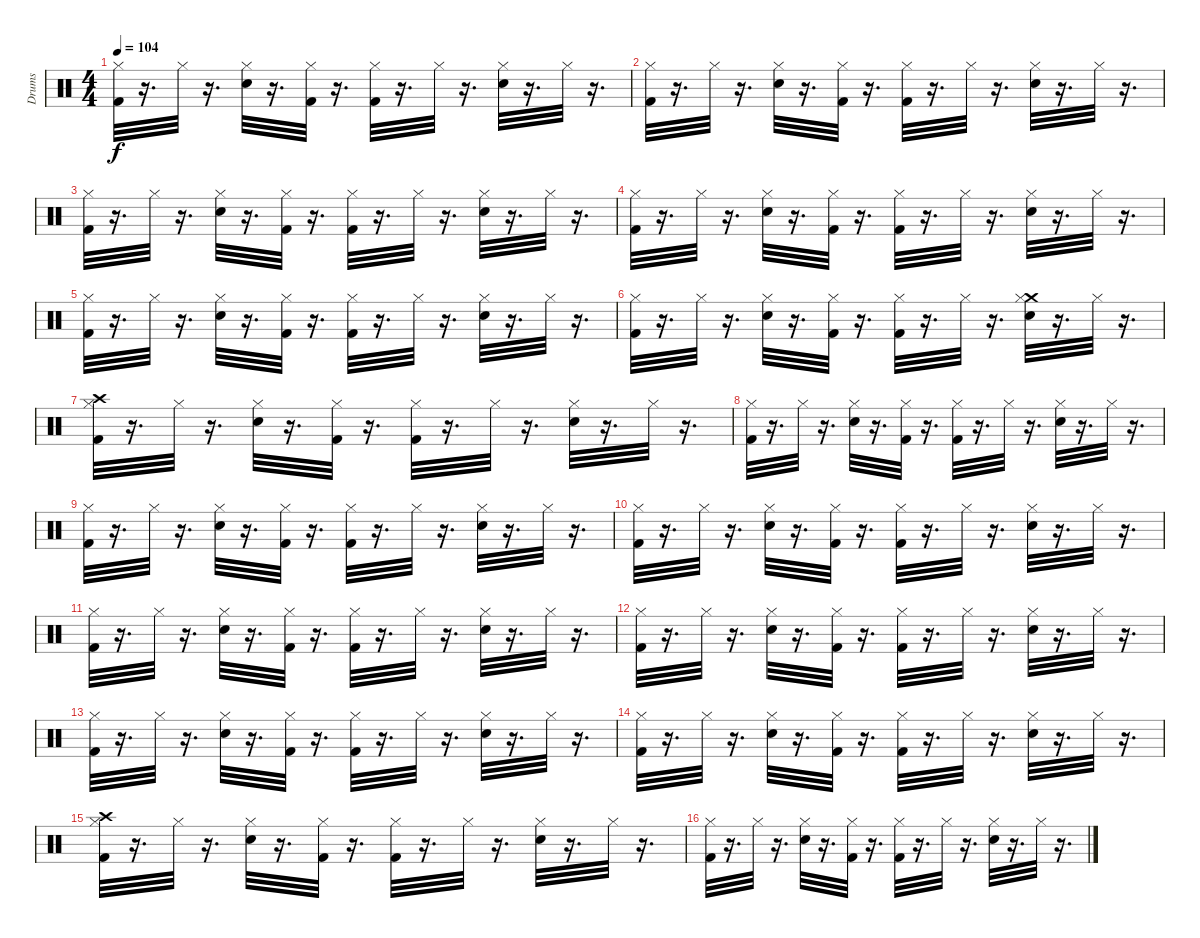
\track ("Drums" "Drums") {instrument percussion}
\staff {score}
\articulation defaults
\ts (4 4)
\tempo 104
\clef neutral
\ks c
("Hi-Hat (closed)" "Kick (hit) 2").32{dy f} r.16{d} "Hi-Hat (closed)".32 r.16{d} ("Hi-Hat (closed)" "Snare (hit) 2").32 r.16{d} ("Kick (hit) 2" "Hi-Hat (closed)").32 r.16{d} ("Hi-Hat (closed)" "Kick (hit) 2").32 r.16{d} "Hi-Hat (closed)".32 r.16{d} ("Hi-Hat (closed)" "Snare (hit) 2").32 r.16{d} "Hi-Hat (closed)".32 r.16{d} |
("Hi-Hat (closed)" "Kick (hit) 2").32 r.16{d} "Hi-Hat (closed)".32 r.16{d} ("Hi-Hat (closed)" "Snare (hit) 2").32 r.16{d} ("Kick (hit) 2" "Hi-Hat (closed)").32 r.16{d} ("Hi-Hat (closed)" "Kick (hit) 2").32 r.16{d} "Hi-Hat (closed)".32 r.16{d} ("Hi-Hat (closed)" "Snare (hit) 2").32 r.16{d} "Hi-Hat (closed)".32 r.16{d} |
("Hi-Hat (closed)" "Kick (hit) 2").32 r.16{d} "Hi-Hat (closed)".32 r.16{d} ("Hi-Hat (closed)" "Snare (hit) 2").32 r.16{d} ("Kick (hit) 2" "Hi-Hat (closed)").32 r.16{d} ("Hi-Hat (closed)" "Kick (hit) 2").32 r.16{d} "Hi-Hat (closed)".32 r.16{d} ("Hi-Hat (closed)" "Snare (hit) 2").32 r.16{d} "Hi-Hat (closed)".32 r.16{d} |
("Hi-Hat (closed)" "Kick (hit) 2").32 r.16{d} "Hi-Hat (closed)".32 r.16{d} ("Hi-Hat (closed)" "Snare (hit) 2").32 r.16{d} ("Kick (hit) 2" "Hi-Hat (closed)").32 r.16{d} ("Hi-Hat (closed)" "Kick (hit) 2").32 r.16{d} "Hi-Hat (closed)".32 r.16{d} ("Hi-Hat (closed)" "Snare (hit) 2").32 r.16{d} "Hi-Hat (closed)".32 r.16{d} |
("Hi-Hat (closed)" "Kick (hit) 2").32 r.16{d} "Hi-Hat (closed)".32 r.16{d} ("Hi-Hat (closed)" "Snare (hit) 2").32 r.16{d} ("Kick (hit) 2" "Hi-Hat (closed)").32 r.16{d} ("Hi-Hat (closed)" "Kick (hit) 2").32 r.16{d} "Hi-Hat (closed)".32 r.16{d} ("Hi-Hat (closed)" "Snare (hit) 2").32 r.16{d} "Hi-Hat (closed)".32 r.16{d} |
("Hi-Hat (closed)" "Kick (hit) 2").32 r.16{d} "Hi-Hat (closed)".32 r.16{d} ("Hi-Hat (closed)" "Snare (hit) 2").32 r.16{d} ("Kick (hit) 2" "Hi-Hat (closed)").32 r.16{d} ("Hi-Hat (closed)" "Kick (hit) 2").32 r.16{d} "Hi-Hat (closed)".32 r.16{d} ("Crash medium (hit)" "Hi-Hat (closed)" "Snare (hit) 2").32 r.16{d} "Hi-Hat (closed)".32 r.16{d} |
("Crash high (hit)" "Hi-Hat (closed)" "Kick (hit) 2").32 r.16{d} "Hi-Hat (closed)".32 r.16{d} ("Hi-Hat (closed)" "Snare (hit) 2").32 r.16{d} ("Kick (hit) 2" "Hi-Hat (closed)").32 r.16{d} ("Hi-Hat (closed)" "Kick (hit) 2").32 r.16{d} "Hi-Hat (closed)".32 r.16{d} ("Hi-Hat (closed)" "Snare (hit) 2").32 r.16{d} "Hi-Hat (closed)".32 r.16{d} |
("Hi-Hat (closed)" "Kick (hit) 2").32 r.16{d} "Hi-Hat (closed)".32 r.16{d} ("Hi-Hat (closed)" "Snare (hit) 2").32 r.16{d} ("Kick (hit) 2" "Hi-Hat (closed)").32 r.16{d} ("Hi-Hat (closed)" "Kick (hit) 2").32 r.16{d} "Hi-Hat (closed)".32 r.16{d} ("Hi-Hat (closed)" "Snare (hit) 2").32 r.16{d} "Hi-Hat (closed)".32 r.16{d} |
("Hi-Hat (closed)" "Kick (hit) 2").32 r.16{d} "Hi-Hat (closed)".32 r.16{d} ("Hi-Hat (closed)" "Snare (hit) 2").32 r.16{d} ("Kick (hit) 2" "Hi-Hat (closed)").32 r.16{d} ("Hi-Hat (closed)" "Kick (hit) 2").32 r.16{d} "Hi-Hat (closed)".32 r.16{d} ("Hi-Hat (closed)" "Snare (hit) 2").32 r.16{d} "Hi-Hat (closed)".32 r.16{d} |
("Hi-Hat (closed)" "Kick (hit) 2").32 r.16{d} "Hi-Hat (closed)".32 r.16{d} ("Hi-Hat (closed)" "Snare (hit) 2").32 r.16{d} ("Kick (hit) 2" "Hi-Hat (closed)").32 r.16{d} ("Hi-Hat (closed)" "Kick (hit) 2").32 r.16{d} "Hi-Hat (closed)".32 r.16{d} ("Hi-Hat (closed)" "Snare (hit) 2").32 r.16{d} "Hi-Hat (closed)".32 r.16{d} |
("Hi-Hat (closed)" "Kick (hit) 2").32 r.16{d} "Hi-Hat (closed)".32 r.16{d} ("Hi-Hat (closed)" "Snare (hit) 2").32 r.16{d} ("Kick (hit) 2" "Hi-Hat (closed)").32 r.16{d} ("Hi-Hat (closed)" "Kick (hit) 2").32 r.16{d} "Hi-Hat (closed)".32 r.16{d} ("Hi-Hat (closed)" "Snare (hit) 2").32 r.16{d} "Hi-Hat (closed)".32 r.16{d} |
("Hi-Hat (closed)" "Kick (hit) 2").32 r.16{d} "Hi-Hat (closed)".32 r.16{d} ("Hi-Hat (closed)" "Snare (hit) 2").32 r.16{d} ("Kick (hit) 2" "Hi-Hat (closed)").32 r.16{d} ("Hi-Hat (closed)" "Kick (hit) 2").32 r.16{d} "Hi-Hat (closed)".32 r.16{d} ("Hi-Hat (closed)" "Snare (hit) 2").32 r.16{d} "Hi-Hat (closed)".32 r.16{d} |
("Hi-Hat (closed)" "Kick (hit) 2").32 r.16{d} "Hi-Hat (closed)".32 r.16{d} ("Hi-Hat (closed)" "Snare (hit) 2").32 r.16{d} ("Kick (hit) 2" "Hi-Hat (closed)").32 r.16{d} ("Hi-Hat (closed)" "Kick (hit) 2").32 r.16{d} "Hi-Hat (closed)".32 r.16{d} ("Hi-Hat (closed)" "Snare (hit) 2").32 r.16{d} "Hi-Hat (closed)".32 r.16{d} |
("Hi-Hat (closed)" "Kick (hit) 2").32 r.16{d} "Hi-Hat (closed)".32 r.16{d} ("Hi-Hat (closed)" "Snare (hit) 2").32 r.16{d} ("Kick (hit) 2" "Hi-Hat (closed)").32 r.16{d} ("Hi-Hat (closed)" "Kick (hit) 2").32 r.16{d} "Hi-Hat (closed)".32 r.16{d} ("Hi-Hat (closed)" "Snare (hit) 2").32 r.16{d} "Hi-Hat (closed)".32 r.16{d} |
("Crash high (hit)" "Hi-Hat (closed)" "Kick (hit) 2").32 r.16{d} "Hi-Hat (closed)".32 r.16{d} ("Hi-Hat (closed)" "Snare (hit) 2").32 r.16{d} ("Kick (hit) 2" "Hi-Hat (closed)").32 r.16{d} ("Hi-Hat (closed)" "Kick (hit) 2").32 r.16{d} "Hi-Hat (closed)".32 r.16{d} ("Hi-Hat (closed)" "Snare (hit) 2").32 r.16{d} "Hi-Hat (closed)".32 r.16{d} |
("Hi-Hat (closed)" "Kick (hit) 2").32 r.16{d} "Hi-Hat (closed)".32 r.16{d} ("Hi-Hat (closed)" "Snare (hit) 2").32 r.16{d} ("Kick (hit) 2" "Hi-Hat (closed)").32 r.16{d} ("Hi-Hat (closed)" "Kick (hit) 2").32 r.16{d} "Hi-Hat (closed)".32 r.16{d} ("Hi-Hat (closed)" "Snare (hit) 2").32 r.16{d} "Hi-Hat (closed)".32 r.16{d}
